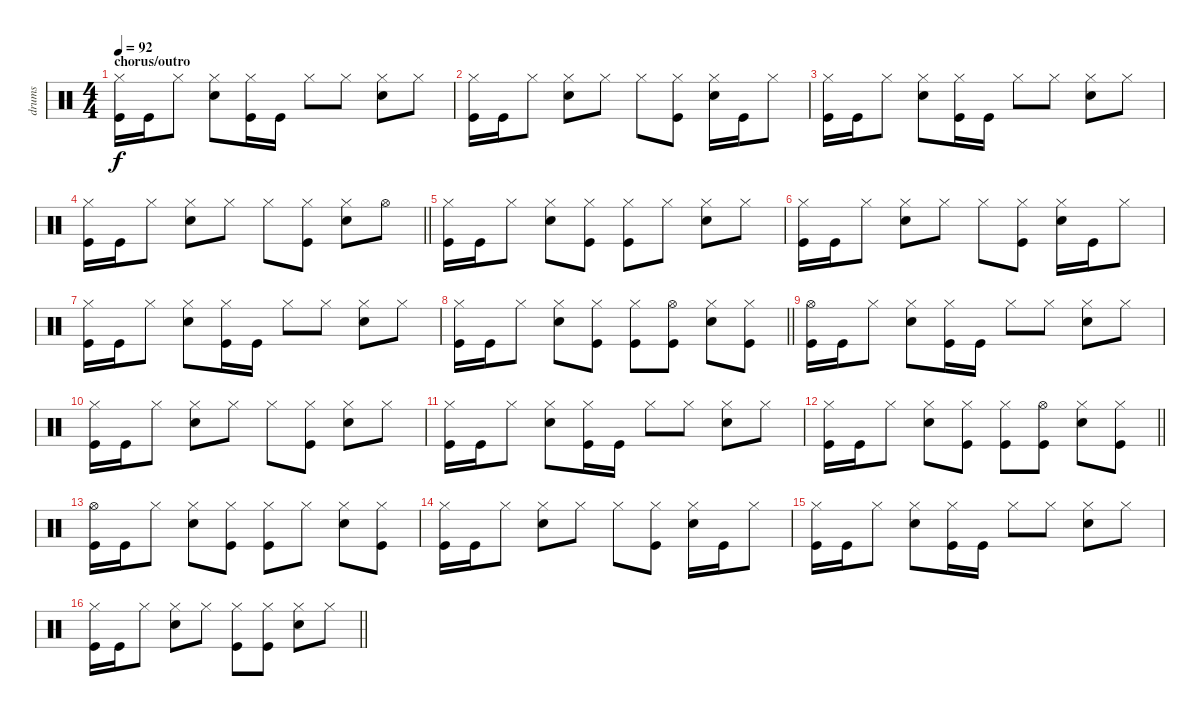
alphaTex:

\track ("drums" "drums") {instrument percussion}
\staff {score}
\articulation defaults
\ts (4 4)
\section ("" "chorus/outro")
\tempo 92
\clef neutral
\ks c
("Hi-Hat (closed)" "Kick (hit)").16{dy f} "Kick (hit)".16 "Hi-Hat (closed)".8 ("Hi-Hat (closed)" "Snare (hit) 2").8 ("Hi-Hat (closed)" "Kick (hit)").16 "Kick (hit)".16 "Hi-Hat (closed)".8 "Hi-Hat (closed)".8 ("Hi-Hat (closed)" "Snare (hit) 2").8 "Hi-Hat (closed)".8 |
("Hi-Hat (closed)" "Kick (hit)").16 "Kick (hit)".16 "Hi-Hat (closed)".8 ("Hi-Hat (closed)" "Snare (hit) 2").8 "Hi-Hat (closed)".8 "Hi-Hat (closed)".8 ("Hi-Hat (closed)" "Kick (hit)").8 ("Hi-Hat (closed)" "Snare (hit) 2").16 "Kick (hit)".16 "Hi-Hat (closed)".8 |
("Hi-Hat (closed)" "Kick (hit)").16 "Kick (hit)".16 "Hi-Hat (closed)".8 ("Hi-Hat (closed)" "Snare (hit) 2").8 ("Hi-Hat (closed)" "Kick (hit)").16 "Kick (hit)".16 "Hi-Hat (closed)".8 "Hi-Hat (closed)".8 ("Hi-Hat (closed)" "Snare (hit) 2").8 "Hi-Hat (closed)".8 |
\barLineRight lightlight
("Hi-Hat (closed)" "Kick (hit)").16 "Kick (hit)".16 "Hi-Hat (closed)".8 ("Hi-Hat (closed)" "Snare (hit) 2").8 "Hi-Hat (closed)".8 "Hi-Hat (closed)".8 ("Hi-Hat (closed)" "Kick (hit)").8 ("Hi-Hat (closed)" "Snare (hit) 2").8 "Hi-Hat (open)".8 |
("Hi-Hat (closed)" "Kick (hit)").16 "Kick (hit)".16 "Hi-Hat (closed)".8 ("Hi-Hat (closed)" "Snare (hit) 2").8 ("Hi-Hat (closed)" "Kick (hit)").8 ("Hi-Hat (closed)" "Kick (hit)").8 "Hi-Hat (closed)".8 ("Hi-Hat (closed)" "Snare (hit) 2").8 "Hi-Hat (closed)".8 |
("Hi-Hat (closed)" "Kick (hit)").16 "Kick (hit)".16 "Hi-Hat (closed)".8 ("Hi-Hat (closed)" "Snare (hit) 2").8 "Hi-Hat (closed)".8 "Hi-Hat (closed)".8 ("Hi-Hat (closed)" "Kick (hit)").8 ("Hi-Hat (closed)" "Snare (hit) 2").16 "Kick (hit)".16 "Hi-Hat (closed)".8 |
("Hi-Hat (closed)" "Kick (hit)").16 "Kick (hit)".16 "Hi-Hat (closed)".8 ("Hi-Hat (closed)" "Snare (hit) 2").8 ("Hi-Hat (closed)" "Kick (hit)").16 "Kick (hit)".16 "Hi-Hat (closed)".8 "Hi-Hat (closed)".8 ("Hi-Hat (closed)" "Snare (hit) 2").8 "Hi-Hat (closed)".8 |
\barLineRight lightlight
("Hi-Hat (closed)" "Kick (hit)").16 "Kick (hit)".16 "Hi-Hat (closed)".8 ("Hi-Hat (closed)" "Snare (hit) 2").8 ("Hi-Hat (closed)" "Kick (hit)").8 ("Hi-Hat (closed)" "Kick (hit)").8 ("Hi-Hat (open)" "Kick (hit)").8 ("Hi-Hat (closed)" "Snare (hit) 2").8 ("Hi-Hat (closed)" "Kick (hit)").8 |
("Hi-Hat (open)" "Kick (hit)").16 "Kick (hit)".16 "Hi-Hat (closed)".8 ("Hi-Hat (closed)" "Snare (hit) 2").8 ("Hi-Hat (closed)" "Kick (hit)").16 "Kick (hit)".16 "Hi-Hat (closed)".8 "Hi-Hat (closed)".8 ("Hi-Hat (closed)" "Snare (hit) 2").8 "Hi-Hat (closed)".8 |
("Hi-Hat (closed)" "Kick (hit)").16 "Kick (hit)".16 "Hi-Hat (closed)".8 ("Hi-Hat (closed)" "Snare (hit) 2").8 "Hi-Hat (closed)".8 "Hi-Hat (closed)".8 ("Hi-Hat (closed)" "Kick (hit)").8 ("Hi-Hat (closed)" "Snare (hit) 2").8 "Hi-Hat (closed)".8 |
("Hi-Hat (closed)" "Kick (hit)").16 "Kick (hit)".16 "Hi-Hat (closed)".8 ("Hi-Hat (closed)" "Snare (hit) 2").8 ("Hi-Hat (closed)" "Kick (hit)").16 "Kick (hit)".16 "Hi-Hat (closed)".8 "Hi-Hat (closed)".8 ("Hi-Hat (closed)" "Snare (hit) 2").8 "Hi-Hat (closed)".8 |
\barLineRight lightlight
("Hi-Hat (closed)" "Kick (hit)").16 "Kick (hit)".16 "Hi-Hat (closed)".8 ("Hi-Hat (closed)" "Snare (hit) 2").8 ("Hi-Hat (closed)" "Kick (hit)").8 ("Hi-Hat (closed)" "Kick (hit)").8 ("Hi-Hat (open)" "Kick (hit)").8 ("Hi-Hat (closed)" "Snare (hit) 2").8 ("Hi-Hat (closed)" "Kick (hit)").8 |
("Hi-Hat (open)" "Kick (hit)").16{volume 2} "Kick (hit)".16 "Hi-Hat (closed)".8 ("Hi-Hat (closed)" "Snare (hit) 2").8 ("Hi-Hat (closed)" "Kick (hit)").8 ("Hi-Hat (closed)" "Kick (hit)").8 "Hi-Hat (closed)".8 ("Hi-Hat (closed)" "Snare (hit) 2").8 ("Hi-Hat (closed)" "Kick (hit)").8 |
("Hi-Hat (closed)" "Kick (hit)").16 "Kick (hit)".16 "Hi-Hat (closed)".8 ("Hi-Hat (closed)" "Snare (hit) 2").8 "Hi-Hat (closed)".8 "Hi-Hat (closed)".8 ("Hi-Hat (closed)" "Kick (hit)").8 ("Hi-Hat (closed)" "Snare (hit) 2").16 "Kick (hit)".16 "Hi-Hat (closed)".8 |
("Hi-Hat (closed)" "Kick (hit)").16 "Kick (hit)".16 "Hi-Hat (closed)".8 ("Hi-Hat (closed)" "Snare (hit) 2").8 ("Hi-Hat (closed)" "Kick (hit)").16 "Kick (hit)".16 "Hi-Hat (closed)".8 "Hi-Hat (closed)".8 ("Hi-Hat (closed)" "Snare (hit) 2").8 "Hi-Hat (closed)".8 |
\barLineRight lightlight
("Hi-Hat (closed)" "Kick (hit)").16 "Kick (hit)".16 "Hi-Hat (closed)".8 ("Hi-Hat (closed)" "Snare (hit) 2").8 "Hi-Hat (closed)".8 ("Hi-Hat (closed)" "Kick (hit)").8 ("Hi-Hat (closed)" "Kick (hit)").8 ("Hi-Hat (closed)" "Snare (hit) 2").8 "Hi-Hat (closed)".8
